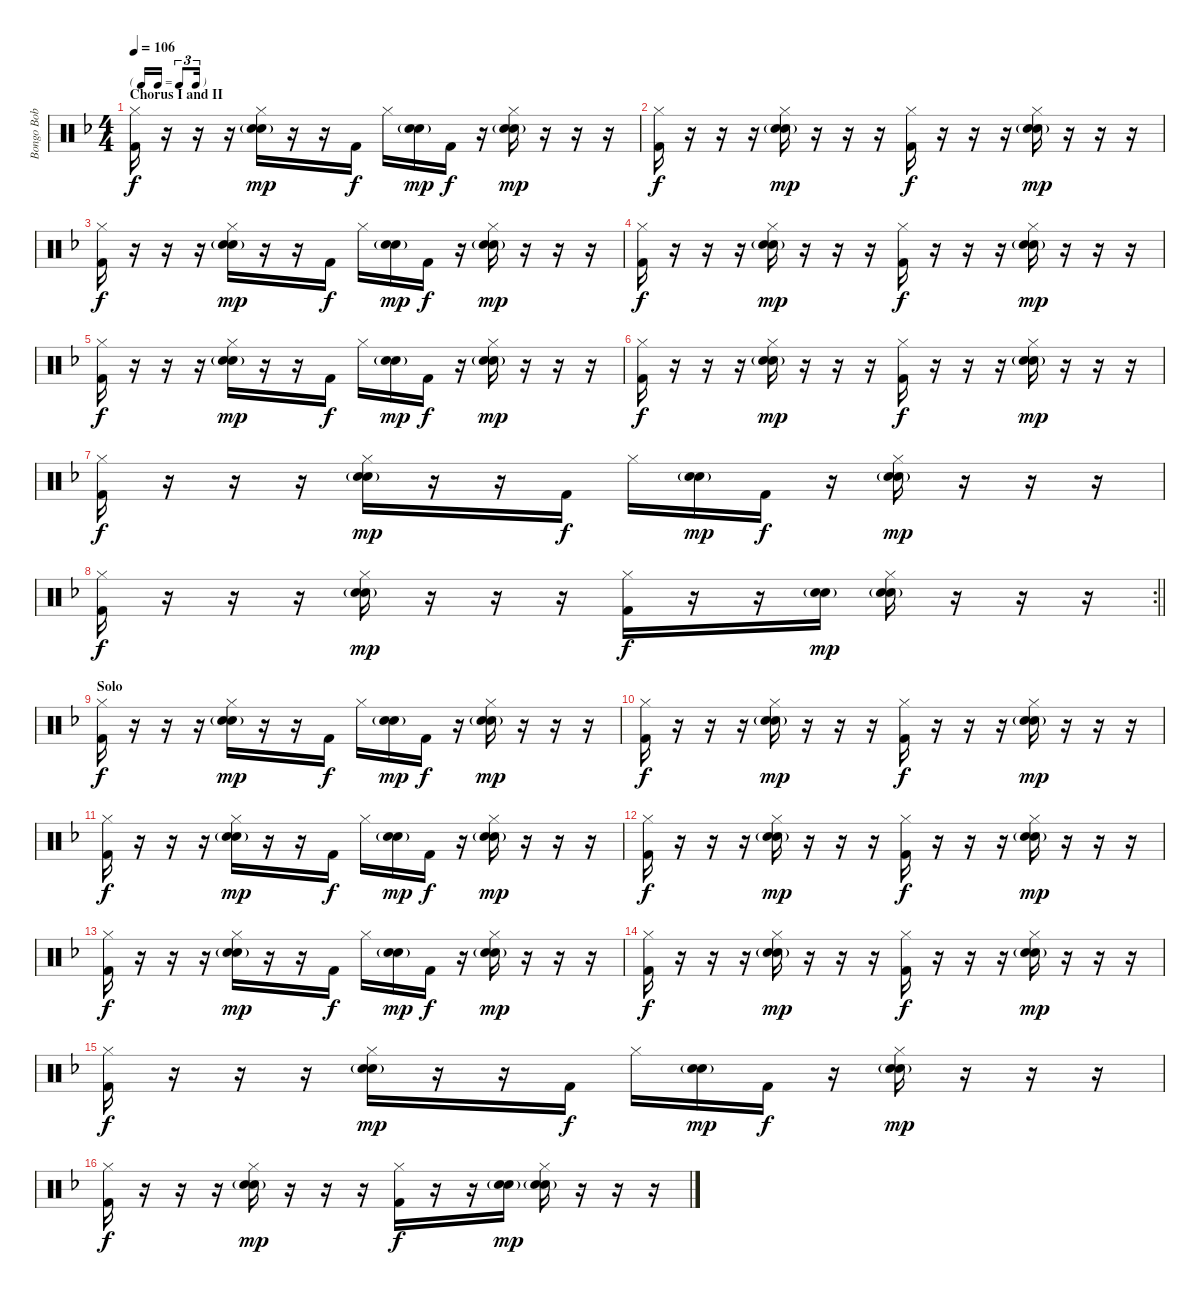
\track ("Bongo Bob Smith (Drums)" "Bongo Bob ") {instrument percussion}
\staff {score}
\articulation defaults
\ts (4 4)
\tf triplet16th
\section ("" "Chorus I and II")
\tempo 106
\clef neutral
\ks f
("Hi-Hat (closed)" "Kick (hit) 2").16{dy f} r.16 r.16 r.16 ("Hi-Hat (closed)" "Snare (hit) 2"{g} "Electric Snare (hit)").16{dy mp} r.16 r.16 "Kick (hit) 2".16{dy f} "Hi-Hat (closed)".16 ("Snare (hit) 2"{g} "Electric Snare (hit)").16{dy mp} "Kick (hit) 2".16{dy f} r.16 ("Hi-Hat (closed)" "Snare (hit) 2"{g} "Electric Snare (hit)").16{dy mp} r.16 r.16 r.16 |
("Hi-Hat (closed)" "Kick (hit) 2").16{dy f} r.16 r.16 r.16 ("Hi-Hat (closed)" "Snare (hit) 2"{g} "Electric Snare (hit)").16{dy mp} r.16 r.16 r.16 ("Hi-Hat (closed)" "Kick (hit) 2").16{dy f} r.16 r.16 r.16 ("Hi-Hat (closed)" "Snare (hit) 2"{g} "Electric Snare (hit)").16{dy mp} r.16 r.16 r.16 |
("Hi-Hat (closed)" "Kick (hit) 2").16{dy f} r.16 r.16 r.16 ("Hi-Hat (closed)" "Snare (hit) 2"{g} "Electric Snare (hit)").16{dy mp} r.16 r.16 "Kick (hit) 2".16{dy f} "Hi-Hat (closed)".16 ("Snare (hit) 2"{g} "Electric Snare (hit)").16{dy mp} "Kick (hit) 2".16{dy f} r.16 ("Hi-Hat (closed)" "Snare (hit) 2"{g} "Electric Snare (hit)").16{dy mp} r.16 r.16 r.16 |
("Hi-Hat (closed)" "Kick (hit) 2").16{dy f} r.16 r.16 r.16 ("Hi-Hat (closed)" "Snare (hit) 2"{g} "Electric Snare (hit)").16{dy mp} r.16 r.16 r.16 ("Hi-Hat (closed)" "Kick (hit) 2").16{dy f} r.16 r.16 r.16 ("Hi-Hat (closed)" "Snare (hit) 2"{g} "Electric Snare (hit)").16{dy mp} r.16 r.16 r.16 |
("Hi-Hat (closed)" "Kick (hit) 2").16{dy f} r.16 r.16 r.16 ("Hi-Hat (closed)" "Snare (hit) 2"{g} "Electric Snare (hit)").16{dy mp} r.16 r.16 "Kick (hit) 2".16{dy f} "Hi-Hat (closed)".16 ("Snare (hit) 2"{g} "Electric Snare (hit)").16{dy mp} "Kick (hit) 2".16{dy f} r.16 ("Hi-Hat (closed)" "Snare (hit) 2"{g} "Electric Snare (hit)").16{dy mp} r.16 r.16 r.16 |
("Hi-Hat (closed)" "Kick (hit) 2").16{dy f} r.16 r.16 r.16 ("Hi-Hat (closed)" "Snare (hit) 2"{g} "Electric Snare (hit)").16{dy mp} r.16 r.16 r.16 ("Hi-Hat (closed)" "Kick (hit) 2").16{dy f} r.16 r.16 r.16 ("Hi-Hat (closed)" "Snare (hit) 2"{g} "Electric Snare (hit)").16{dy mp} r.16 r.16 r.16 |
("Hi-Hat (closed)" "Kick (hit) 2").16{dy f} r.16 r.16 r.16 ("Hi-Hat (closed)" "Snare (hit) 2"{g} "Electric Snare (hit)").16{dy mp} r.16 r.16 "Kick (hit) 2".16{dy f} "Hi-Hat (closed)".16 ("Snare (hit) 2"{g} "Electric Snare (hit)").16{dy mp} "Kick (hit) 2".16{dy f} r.16 ("Hi-Hat (closed)" "Snare (hit) 2"{g} "Electric Snare (hit)").16{dy mp} r.16 r.16 r.16 |
\rc 2
\barLineRight lightlight
("Hi-Hat (closed)" "Kick (hit) 2").16{dy f} r.16 r.16 r.16 ("Hi-Hat (closed)" "Snare (hit) 2"{g} "Electric Snare (hit)").16{dy mp} r.16 r.16 r.16 ("Hi-Hat (closed)" "Kick (hit) 2").16{dy f} r.16 r.16 ("Snare (hit) 2"{g} "Electric Snare (hit)").16{dy mp} ("Hi-Hat (closed)" "Snare (hit) 2"{g} "Electric Snare (hit)").16 r.16 r.16 r.16 |
\section ("" "Solo")
("Hi-Hat (closed)" "Kick (hit) 2").16{dy f} r.16 r.16 r.16 ("Hi-Hat (closed)" "Snare (hit) 2"{g} "Electric Snare (hit)").16{dy mp} r.16 r.16 "Kick (hit) 2".16{dy f} "Hi-Hat (closed)".16 ("Snare (hit) 2"{g} "Electric Snare (hit)").16{dy mp} "Kick (hit) 2".16{dy f} r.16 ("Hi-Hat (closed)" "Snare (hit) 2"{g} "Electric Snare (hit)").16{dy mp} r.16 r.16 r.16 |
("Hi-Hat (closed)" "Kick (hit) 2").16{dy f} r.16 r.16 r.16 ("Hi-Hat (closed)" "Snare (hit) 2"{g} "Electric Snare (hit)").16{dy mp} r.16 r.16 r.16 ("Hi-Hat (closed)" "Kick (hit) 2").16{dy f} r.16 r.16 r.16 ("Hi-Hat (closed)" "Snare (hit) 2"{g} "Electric Snare (hit)").16{dy mp} r.16 r.16 r.16 |
("Hi-Hat (closed)" "Kick (hit) 2").16{dy f} r.16 r.16 r.16 ("Hi-Hat (closed)" "Snare (hit) 2"{g} "Electric Snare (hit)").16{dy mp} r.16 r.16 "Kick (hit) 2".16{dy f} "Hi-Hat (closed)".16 ("Snare (hit) 2"{g} "Electric Snare (hit)").16{dy mp} "Kick (hit) 2".16{dy f} r.16 ("Hi-Hat (closed)" "Snare (hit) 2"{g} "Electric Snare (hit)").16{dy mp} r.16 r.16 r.16 |
("Hi-Hat (closed)" "Kick (hit) 2").16{dy f} r.16 r.16 r.16 ("Hi-Hat (closed)" "Snare (hit) 2"{g} "Electric Snare (hit)").16{dy mp} r.16 r.16 r.16 ("Hi-Hat (closed)" "Kick (hit) 2").16{dy f} r.16 r.16 r.16 ("Hi-Hat (closed)" "Snare (hit) 2"{g} "Electric Snare (hit)").16{dy mp} r.16 r.16 r.16 |
("Hi-Hat (closed)" "Kick (hit) 2").16{dy f} r.16 r.16 r.16 ("Hi-Hat (closed)" "Snare (hit) 2"{g} "Electric Snare (hit)").16{dy mp} r.16 r.16 "Kick (hit) 2".16{dy f} "Hi-Hat (closed)".16 ("Snare (hit) 2"{g} "Electric Snare (hit)").16{dy mp} "Kick (hit) 2".16{dy f} r.16 ("Hi-Hat (closed)" "Snare (hit) 2"{g} "Electric Snare (hit)").16{dy mp} r.16 r.16 r.16 |
("Hi-Hat (closed)" "Kick (hit) 2").16{dy f} r.16 r.16 r.16 ("Hi-Hat (closed)" "Snare (hit) 2"{g} "Electric Snare (hit)").16{dy mp} r.16 r.16 r.16 ("Hi-Hat (closed)" "Kick (hit) 2").16{dy f} r.16 r.16 r.16 ("Hi-Hat (closed)" "Snare (hit) 2"{g} "Electric Snare (hit)").16{dy mp} r.16 r.16 r.16 |
("Hi-Hat (closed)" "Kick (hit) 2").16{dy f} r.16 r.16 r.16 ("Hi-Hat (closed)" "Snare (hit) 2"{g} "Electric Snare (hit)").16{dy mp} r.16 r.16 "Kick (hit) 2".16{dy f} "Hi-Hat (closed)".16 ("Snare (hit) 2"{g} "Electric Snare (hit)").16{dy mp} "Kick (hit) 2".16{dy f} r.16 ("Hi-Hat (closed)" "Snare (hit) 2"{g} "Electric Snare (hit)").16{dy mp} r.16 r.16 r.16 |
("Hi-Hat (closed)" "Kick (hit) 2").16{dy f} r.16 r.16 r.16 ("Hi-Hat (closed)" "Snare (hit) 2"{g} "Electric Snare (hit)").16{dy mp} r.16 r.16 r.16 ("Hi-Hat (closed)" "Kick (hit) 2").16{dy f} r.16 r.16 ("Snare (hit) 2"{g} "Electric Snare (hit)").16{dy mp} ("Hi-Hat (closed)" "Snare (hit) 2"{g} "Electric Snare (hit)").16 r.16 r.16 r.16
